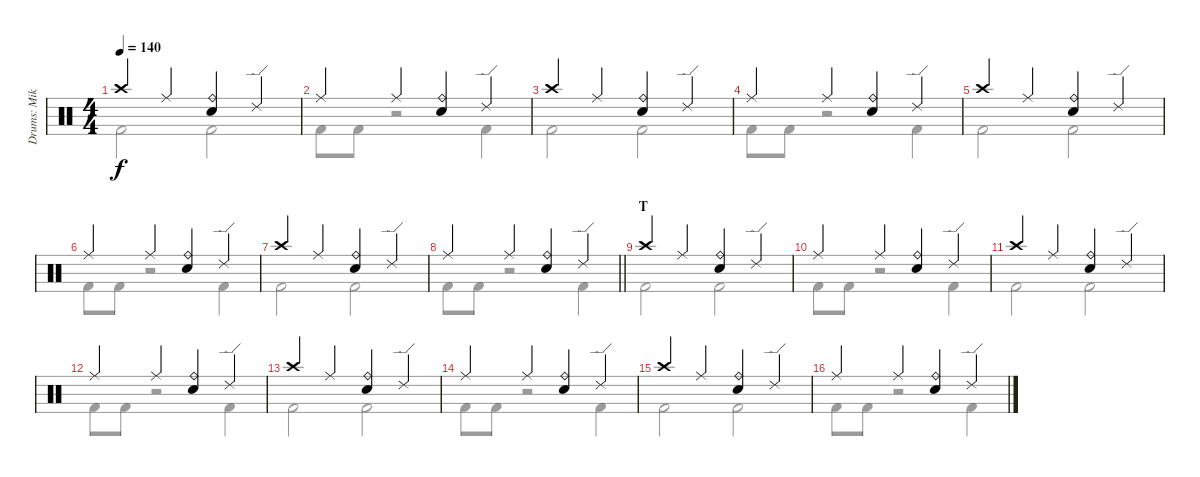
\track ("Drums: Mike" "Drums: Mik") {instrument percussion}
\staff {score}
\articulation defaults
\voice
\ts (4 4)
\tempo 140
\clef neutral
\ks c "Crash high (hit)".4{dy f} "Ride (middle)".4
("Ride (bell)" "Snare (hit) 2").4 "Ride (edge) 2".4 |
"Ride (middle)".4 "Ride (middle)".4 ("Ride (bell)" "Snare (hit) 2").4 "Ride (edge) 2".4 |
"Crash high (hit)".4 "Ride (middle)".4 ("Ride (bell)" "Snare (hit) 2").4 "Ride (edge) 2".4 |
"Ride (middle)".4 "Ride (middle)".4 ("Ride (bell)" "Snare (hit) 2").4 "Ride (edge) 2".4 |
"Crash high (hit)".4 "Ride (middle)".4 ("Ride (bell)" "Snare (hit) 2").4 "Ride (edge) 2".4 |
"Ride (middle)".4 "Ride (middle)".4 ("Ride (bell)" "Snare (hit) 2").4 "Ride (edge) 2".4 |
"Crash high (hit)".4 "Ride (middle)".4 ("Ride (bell)" "Snare (hit) 2").4 "Ride (edge) 2".4 |
\barLineRight lightlight "Ride (middle)".4 "Ride (middle)".4
("Ride (bell)" "Snare (hit) 2").4 "Ride (edge) 2".4 |
\section ("" "T")
"Crash high (hit)".4 "Ride (middle)".4 ("Ride (bell)" "Snare (hit) 2").4 "Ride (edge) 2".4 |
"Ride (middle)".4 "Ride (middle)".4 ("Ride (bell)" "Snare (hit) 2").4 "Ride (edge) 2".4 |
"Crash high (hit)".4 "Ride (middle)".4 ("Ride (bell)" "Snare (hit) 2").4 "Ride (edge) 2".4 |
"Ride (middle)".4 "Ride (middle)".4 ("Ride (bell)" "Snare (hit) 2").4 "Ride (edge) 2".4 |
"Crash high (hit)".4 "Ride (middle)".4 ("Ride (bell)" "Snare (hit) 2").4 "Ride (edge) 2".4 |
"Ride (middle)".4 "Ride (middle)".4 ("Ride (bell)" "Snare (hit) 2").4 "Ride (edge) 2".4 |
"Crash high (hit)".4 "Ride (middle)".4 ("Ride (bell)" "Snare (hit) 2").4 "Ride (edge) 2".4 |
"Ride (middle)".4 "Ride (middle)".4 ("Ride (bell)" "Snare (hit) 2").4 "Ride (edge) 2".4
\voice
\clef neutral
\ottava regular
\simile none
\ks c "Kick (hit) 2".2{dy f} "Kick (hit) 2".2
|
"Kick (hit) 2".8 "Kick (hit) 2".8 r.2 "Kick (hit) 2".4 |
"Kick (hit) 2".2 "Kick (hit) 2".2 |
"Kick (hit) 2".8 "Kick (hit) 2".8 r.2 "Kick (hit) 2".4 |
"Kick (hit) 2".2 "Kick (hit) 2".2 |
"Kick (hit) 2".8 "Kick (hit) 2".8 r.2 "Kick (hit) 2".4 |
"Kick (hit) 2".2 "Kick (hit) 2".2 |
\barLineRight lightlight "Kick (hit) 2".8 "Kick (hit) 2".8
r.2 "Kick (hit) 2".4 |
"Kick (hit) 2".2 "Kick (hit) 2".2 |
"Kick (hit) 2".8 "Kick (hit) 2".8 r.2 "Kick (hit) 2".4 |
"Kick (hit) 2".2 "Kick (hit) 2".2 |
"Kick (hit) 2".8 "Kick (hit) 2".8 r.2 "Kick (hit) 2".4 |
"Kick (hit) 2".2 "Kick (hit) 2".2 |
"Kick (hit) 2".8 "Kick (hit) 2".8 r.2 "Kick (hit) 2".4 |
"Kick (hit) 2".2 "Kick (hit) 2".2 |
"Kick (hit) 2".8 "Kick (hit) 2".8 r.2 "Kick (hit) 2".4
